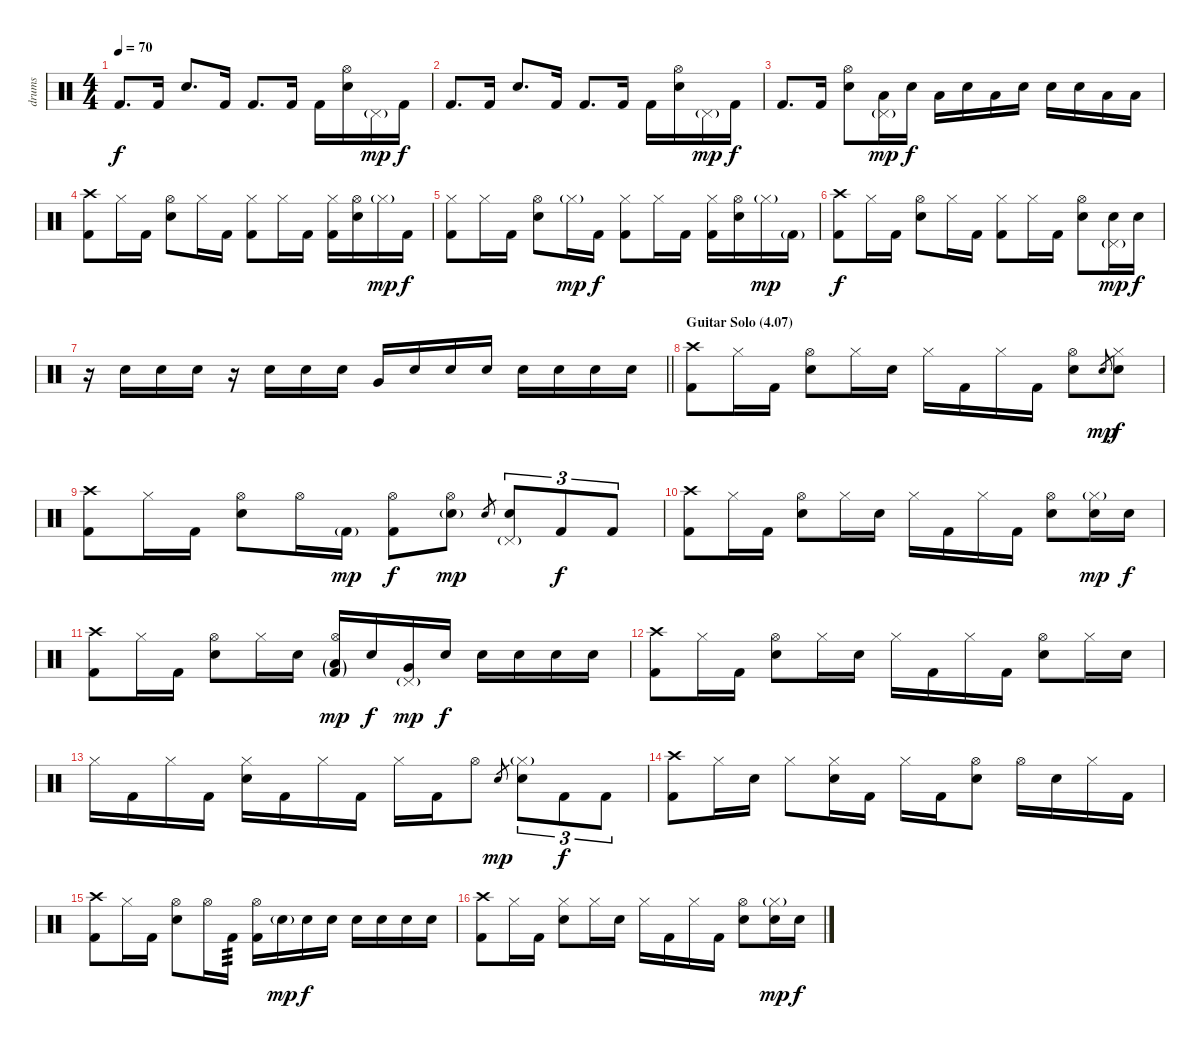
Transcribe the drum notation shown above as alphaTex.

\track ("drums" "drums") {instrument percussion}
\staff {score}
\articulation defaults
\ts (4 4)
\tempo 70
\clef neutral
\ks c "Kick (hit) 2".8{d dy f} "Kick (hit) 2".16 "Electric Snare (hit)".8{d} "Kick (hit) 2".16 "Kick (hit) 2".8{d} "Kick (hit) 2".16 "Kick (hit) 2".16
("Hi-Hat (open)" "Electric Snare (hit)").16 "Pedal Hi-Hat (hit)"{g}.16{dy mp} "Kick (hit) 2".16{dy f} |
"Kick (hit) 2".8{d} "Kick (hit) 2".16 "Electric Snare (hit)".8{d} "Kick (hit) 2".16 "Kick (hit) 2".8{d} "Kick (hit) 2".16 "Kick (hit) 2".16 ("Hi-Hat (open)" "Electric Snare (hit)").16 "Pedal Hi-Hat (hit)"{g}.16{dy mp} "Kick (hit) 2".16{dy f} |
"Kick (hit) 2".8{d} "Kick (hit) 2".16 ("Hi-Hat (open)" "Electric Snare (hit)").8 ("Pedal Hi-Hat (hit)"{g} "Low Tom (hit)").16{dy mp} "Electric Snare (hit)".16{dy f} "Low Tom (hit)".16 "Electric Snare (hit)".16 "Low Tom (hit)".16 "Electric Snare (hit)".16 "Electric Snare (hit)".16 "Electric Snare (hit)".16 "Low Tom (hit)".16 "Low Tom (hit)".16 |
("Crash high (hit)" "Kick (hit) 2").8 "Hi-Hat (closed)".16 "Kick (hit) 2".16 ("Hi-Hat (open)" "Electric Snare (hit)").8 "Hi-Hat (closed)".16 "Kick (hit) 2".16 ("Hi-Hat (closed)" "Kick (hit) 2").8 "Hi-Hat (closed)".16 "Kick (hit) 2".16 ("Hi-Hat (closed)" "Kick (hit) 2").16 ("Hi-Hat (open)" "Electric Snare (hit)").16 "Hi-Hat (closed)"{g}.16{dy mp} "Kick (hit) 2".16{dy f} |
("Hi-Hat (closed)" "Kick (hit) 2").8 "Hi-Hat (closed)".16 "Kick (hit) 2".16 ("Hi-Hat (open)" "Electric Snare (hit)").8 "Hi-Hat (closed)"{g}.16{dy mp} "Kick (hit) 2".16{dy f} ("Hi-Hat (closed)" "Kick (hit) 2").8 "Hi-Hat (closed)".16 "Kick (hit) 2".16 ("Hi-Hat (closed)" "Kick (hit) 2").16 ("Hi-Hat (open)" "Electric Snare (hit)").16 "Hi-Hat (closed)"{g}.16{dy mp} "Kick (hit) 2"{g}.16 |
("Crash high (hit)" "Kick (hit) 2").8{dy f} "Hi-Hat (closed)".16 "Kick (hit) 2".16 ("Hi-Hat (open)" "Electric Snare (hit)").8 "Hi-Hat (closed)".16 "Kick (hit) 2".16 ("Hi-Hat (closed)" "Kick (hit) 2").8 "Hi-Hat (closed)".16 "Kick (hit) 2".16 ("Hi-Hat (open)" "Electric Snare (hit)").8 ("Pedal Hi-Hat (hit)"{g} "Electric Snare (hit)").16{dy mp} "Electric Snare (hit)".16{dy f} |
\barLineRight lightlight
r.16 "Electric Snare (hit)".16 "Electric Snare (hit)".16 "Electric Snare (hit)".16 r.16 "Electric Snare (hit)".16 "Electric Snare (hit)".16 "Electric Snare (hit)".16 "Very Low Tom (hit)".16 "Electric Snare (hit)".16 "Electric Snare (hit)".16 "Electric Snare (hit)".16 "Electric Snare (hit)".16 "Electric Snare (hit)".16 "Electric Snare (hit)".16 "Electric Snare (hit)".16 |
\section ("" "Guitar Solo (4.07)")
("Crash high (hit)" "Kick (hit) 2").8 "Hi-Hat (closed)".16 "Kick (hit) 2".16 ("Hi-Hat (open)" "Electric Snare (hit)").8 "Hi-Hat (closed)".16 "Electric Snare (hit)".16 "Hi-Hat (closed)".16 "Kick (hit) 2".16 "Hi-Hat (closed)".16 "Kick (hit) 2".16 ("Hi-Hat (open)" "Electric Snare (hit)").8 "Electric Snare (hit)".8{gr dy mp} ("Hi-Hat (closed)" "Electric Snare (hit)").8{dy f} |
("Crash high (hit)" "Kick (hit) 2").8 "Hi-Hat (closed)".16 "Kick (hit) 2".16 ("Hi-Hat (open)" "Electric Snare (hit)").8 "Hi-Hat (open)".16 "Kick (hit) 2"{g}.16{dy mp} ("Hi-Hat (open)" "Kick (hit) 2").8{dy f} ("Hi-Hat (open)" "Electric Snare (hit)"{g}).8{dy mp} "Electric Snare (hit)".8{gr} ("Pedal Hi-Hat (hit)"{g} "Electric Snare (hit)").8{tu (3 2)} "Kick (hit) 2".8{tu (3 2) dy f} "Kick (hit) 2".8{tu (3 2)} |
("Crash high (hit)" "Kick (hit) 2").8 "Hi-Hat (closed)".16 "Kick (hit) 2".16 ("Hi-Hat (open)" "Electric Snare (hit)").8 "Hi-Hat (closed)".16 "Electric Snare (hit)".16 "Hi-Hat (closed)".16 "Kick (hit) 2".16 "Hi-Hat (closed)".16 "Kick (hit) 2".16 ("Hi-Hat (open)" "Electric Snare (hit)").8 ("Hi-Hat (closed)"{g} "Electric Snare (hit)").16{dy mp} "Electric Snare (hit)".16{dy f} |
("Crash high (hit)" "Kick (hit) 2").8 "Hi-Hat (closed)".16 "Kick (hit) 2".16 ("Hi-Hat (open)" "Electric Snare (hit)").8 "Hi-Hat (closed)".16 "Electric Snare (hit)".16 ("Hi-Hat (open)" "Low Tom (hit)"{g} "Kick (hit) 2"{g}).16{dy mp} "Electric Snare (hit)".16{dy f} ("Pedal Hi-Hat (hit)"{g} "Very Low Tom (hit)").16{dy mp} "Electric Snare (hit)".16{dy f} "Electric Snare (hit)".16 "Electric Snare (hit)".16 "Electric Snare (hit)".16 "Electric Snare (hit)".16 |
("Crash high (hit)" "Kick (hit) 2").8 "Hi-Hat (closed)".16 "Kick (hit) 2".16 ("Hi-Hat (open)" "Electric Snare (hit)").8 "Hi-Hat (closed)".16 "Electric Snare (hit)".16 "Hi-Hat (closed)".16 "Kick (hit) 2".16 "Hi-Hat (closed)".16 "Kick (hit) 2".16 ("Hi-Hat (open)" "Electric Snare (hit)").8 "Hi-Hat (closed)".16 "Electric Snare (hit)".16 |
"Hi-Hat (closed)".16 "Kick (hit) 2".16 "Hi-Hat (closed)".16 "Kick (hit) 2".16 ("Hi-Hat (closed)" "Electric Snare (hit)").16 "Kick (hit) 2".16 "Hi-Hat (closed)".16 "Kick (hit) 2".16 "Hi-Hat (closed)".16 "Kick (hit) 2".16 "Hi-Hat (open)".8 "Electric Snare (hit)".8{gr dy mp} ("Hi-Hat (closed)"{g} "Electric Snare (hit)").8{tu (3 2)} "Kick (hit) 2".8{tu (3 2) dy f} "Kick (hit) 2".8{tu (3 2)} |
("Crash high (hit)" "Kick (hit) 2").8 "Hi-Hat (closed)".16 "Electric Snare (hit)".16 "Hi-Hat (closed)".8 ("Hi-Hat (closed)" "Electric Snare (hit)").16 "Kick (hit) 2".16 "Hi-Hat (closed)".16 "Kick (hit) 2".16 ("Hi-Hat (open)" "Electric Snare (hit)").8 "Hi-Hat (open)".16 "Electric Snare (hit)".16 "Hi-Hat (closed)".16 "Kick (hit) 2".16 |
("Crash high (hit)" "Kick (hit) 2").8 "Hi-Hat (closed)".16 "Kick (hit) 2".16 ("Hi-Hat (open)" "Electric Snare (hit)").8 "Hi-Hat (open)".16 "Kick (hit) 2".16{tp 3} ("Hi-Hat (open)" "Kick (hit) 2").16 "Electric Snare (hit)"{g}.16{dy mp} "Electric Snare (hit)".16{dy f} "Electric Snare (hit)".16 "Electric Snare (hit)".16 "Electric Snare (hit)".16 "Electric Snare (hit)".16 "Electric Snare (hit)".16 |
("Crash high (hit)" "Kick (hit) 2").8 "Hi-Hat (closed)".16 "Kick (hit) 2".16 ("Hi-Hat (closed)" "Electric Snare (hit)").8 "Hi-Hat (closed)".16 "Electric Snare (hit)".16 "Hi-Hat (closed)".16 "Kick (hit) 2".16 "Hi-Hat (closed)".16 "Kick (hit) 2".16 ("Hi-Hat (open)" "Electric Snare (hit)").8 ("Hi-Hat (closed)"{g} "Electric Snare (hit)").16{dy mp} "Electric Snare (hit)".16{dy f}
